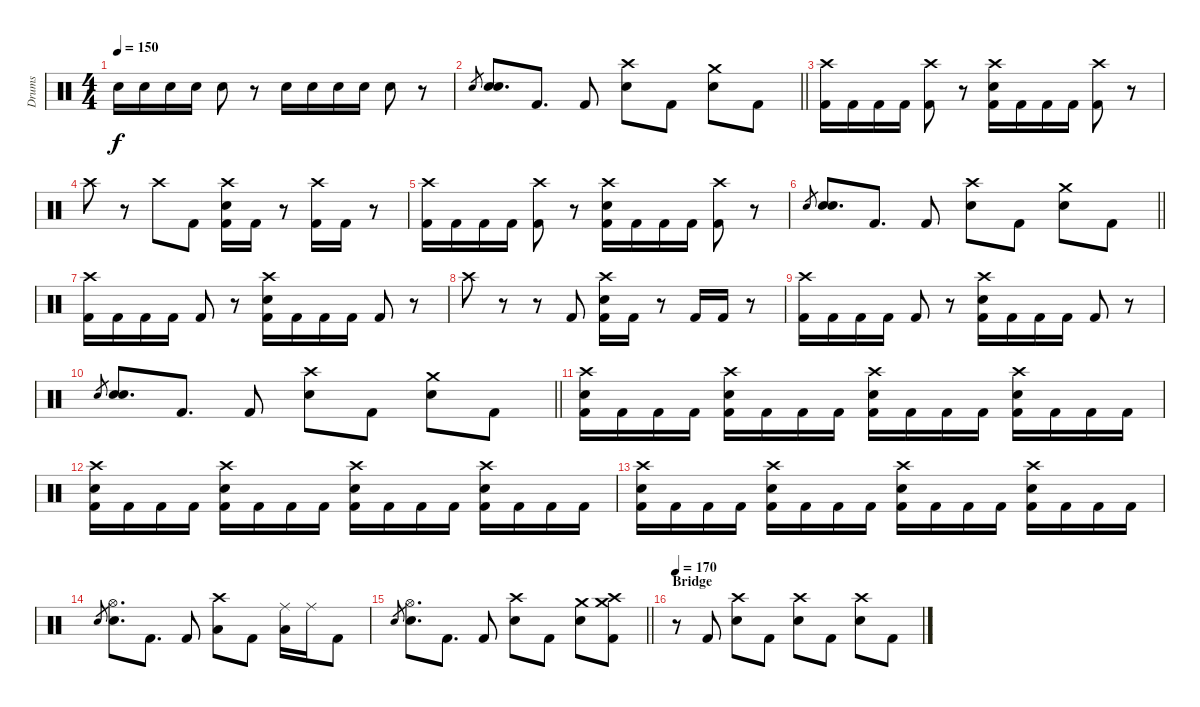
\track ("Drums" "Drums") {instrument percussion}
\staff {score}
\articulation defaults
\ts (4 4)
\tempo 150
\clef neutral
\ks c "Snare (hit) 2".16{dy f} "Snare (hit) 2".16 "Snare (hit) 2".16 "Snare (hit) 2".16 "Snare (hit) 2".8
r.8 "Snare (hit) 2".16 "Snare (hit) 2".16 "Snare (hit) 2".16 "Snare (hit) 2".16 "Snare (hit) 2".8 r.8 |
\barLineRight lightlight "Snare (hit) 2".8{gr}
("Snare (hit) 2" "Snare (hit) 2").8{d} "Kick (hit) 2".8{d} "Kick (hit) 2".8 ("Crash high (hit)" "Snare (hit) 2").8 "Kick (hit) 2".8 ("Crash medium (hit)" "Snare (hit) 2").8 "Kick (hit) 2".8 |
("Crash high (hit)" "Kick (hit) 2").16 "Kick (hit) 2".16 "Kick (hit) 2".16 "Kick (hit) 2".16 ("Crash high (hit)" "Kick (hit) 2").8 r.8 ("Crash high (hit)" "Snare (hit) 2" "Kick (hit) 2").16 "Kick (hit) 2".16 "Kick (hit) 2".16 "Kick (hit) 2".16 ("Crash high (hit)" "Kick (hit) 2").8 r.8 |
"Crash high (hit)".8 r.8 "Crash high (hit)".8 "Kick (hit) 2".8 ("Crash high (hit)" "Snare (hit) 2" "Kick (hit) 2").16 "Kick (hit) 2".16 r.8 ("Crash high (hit)" "Kick (hit) 2").16 "Kick (hit) 2".16 r.8 |
("Crash high (hit)" "Kick (hit) 2").16 "Kick (hit) 2".16 "Kick (hit) 2".16 "Kick (hit) 2".16 ("Crash high (hit)" "Kick (hit) 2").8 r.8 ("Crash high (hit)" "Snare (hit) 2" "Kick (hit) 2").16 "Kick (hit) 2".16 "Kick (hit) 2".16 "Kick (hit) 2".16 ("Crash high (hit)" "Kick (hit) 2").8 r.8 |
\barLineRight lightlight "Snare (hit) 2".8{gr}
("Snare (hit) 2" "Snare (hit) 2").8{d} "Kick (hit) 2".8{d} "Kick (hit) 2".8 ("Crash high (hit)" "Snare (hit) 2").8 "Kick (hit) 2".8 ("Crash medium (hit)" "Snare (hit) 2").8 "Kick (hit) 2".8 |
("Crash high (hit)" "Kick (hit) 2").16 "Kick (hit) 2".16 "Kick (hit) 2".16 "Kick (hit) 2".16 "Kick (hit) 2".8 r.8 ("Crash high (hit)" "Snare (hit) 2" "Kick (hit) 2").16 "Kick (hit) 2".16 "Kick (hit) 2".16 "Kick (hit) 2".16 "Kick (hit) 2".8 r.8 |
"Crash high (hit)".8 r.8 r.8 "Kick (hit) 2".8 ("Crash high (hit)" "Snare (hit) 2" "Kick (hit) 2").16 "Kick (hit) 2".16 r.8 "Kick (hit) 2".16 "Kick (hit) 2".16 r.8 |
("Crash high (hit)" "Kick (hit) 2").16 "Kick (hit) 2".16 "Kick (hit) 2".16 "Kick (hit) 2".16 "Kick (hit) 2".8 r.8 ("Crash high (hit)" "Snare (hit) 2" "Kick (hit) 2").16 "Kick (hit) 2".16 "Kick (hit) 2".16 "Kick (hit) 2".16 "Kick (hit) 2".8 r.8 |
\barLineRight lightlight "Snare (hit) 2".8{gr}
("Snare (hit) 2" "Snare (hit) 2").8{d} "Kick (hit) 2".8{d} "Kick (hit) 2".8 ("Crash high (hit)" "Snare (hit) 2").8 "Kick (hit) 2".8 ("Crash medium (hit)" "Snare (hit) 2").8 "Kick (hit) 2".8 |
("Crash high (hit)" "Snare (hit) 2" "Kick (hit) 2").16 "Kick (hit) 2".16 "Kick (hit) 2".16 "Kick (hit) 2".16 ("Crash high (hit)" "Snare (hit) 2" "Kick (hit) 2").16 "Kick (hit) 2".16 "Kick (hit) 2".16 "Kick (hit) 2".16 ("Crash high (hit)" "Snare (hit) 2" "Kick (hit) 2").16 "Kick (hit) 2".16 "Kick (hit) 2".16 "Kick (hit) 2".16 ("Crash high (hit)" "Snare (hit) 2" "Kick (hit) 2").16 "Kick (hit) 2".16 "Kick (hit) 2".16 "Kick (hit) 2".16 |
("Crash high (hit)" "Snare (hit) 2" "Kick (hit) 2").16 "Kick (hit) 2".16 "Kick (hit) 2".16 "Kick (hit) 2".16 ("Crash high (hit)" "Snare (hit) 2" "Kick (hit) 2").16 "Kick (hit) 2".16 "Kick (hit) 2".16 "Kick (hit) 2".16 ("Crash high (hit)" "Snare (hit) 2" "Kick (hit) 2").16 "Kick (hit) 2".16 "Kick (hit) 2".16 "Kick (hit) 2".16 ("Crash high (hit)" "Snare (hit) 2" "Kick (hit) 2").16 "Kick (hit) 2".16 "Kick (hit) 2".16 "Kick (hit) 2".16 |
("Crash high (hit)" "Snare (hit) 2" "Kick (hit) 2").16 "Kick (hit) 2".16 "Kick (hit) 2".16 "Kick (hit) 2".16 ("Crash high (hit)" "Snare (hit) 2" "Kick (hit) 2").16 "Kick (hit) 2".16 "Kick (hit) 2".16 "Kick (hit) 2".16 ("Crash high (hit)" "Snare (hit) 2" "Kick (hit) 2").16 "Kick (hit) 2".16 "Kick (hit) 2".16 "Kick (hit) 2".16 ("Crash high (hit)" "Snare (hit) 2" "Kick (hit) 2").16 "Kick (hit) 2".16 "Kick (hit) 2".16 "Kick (hit) 2".16 |
"Snare (hit) 2".8{gr} ("Hi-Hat (open)" "Snare (hit) 2").8{d} "Kick (hit) 2".8{d} "Kick (hit) 2".8 ("Crash high (hit)" "Low Tom (hit)").8 "Kick (hit) 2".8 ("Ride (middle)" "Low Tom (hit)").16 "Ride (middle)".16 "Kick (hit) 2".8 |
\barLineRight lightlight "Snare (hit) 2".8{gr}
("Hi-Hat (open)" "Snare (hit) 2").8{d} "Kick (hit) 2".8{d} "Kick (hit) 2".8 ("Crash high (hit)" "Snare (hit) 2").8 "Kick (hit) 2".8 ("Crash medium (hit)" "Snare (hit) 2").8 ("Crash high (hit)" "Crash medium (hit)" "Kick (hit) 2").8 |
\section ("" "Bridge")
\tempo 170
r.8 "Kick (hit) 2".8 ("Crash high (hit)" "Snare (hit) 2").8 "Kick (hit) 2".8 ("Crash high (hit)" "Snare (hit) 2").8 "Kick (hit) 2".8 ("Crash high (hit)" "Snare (hit) 2").8 "Kick (hit) 2".8
